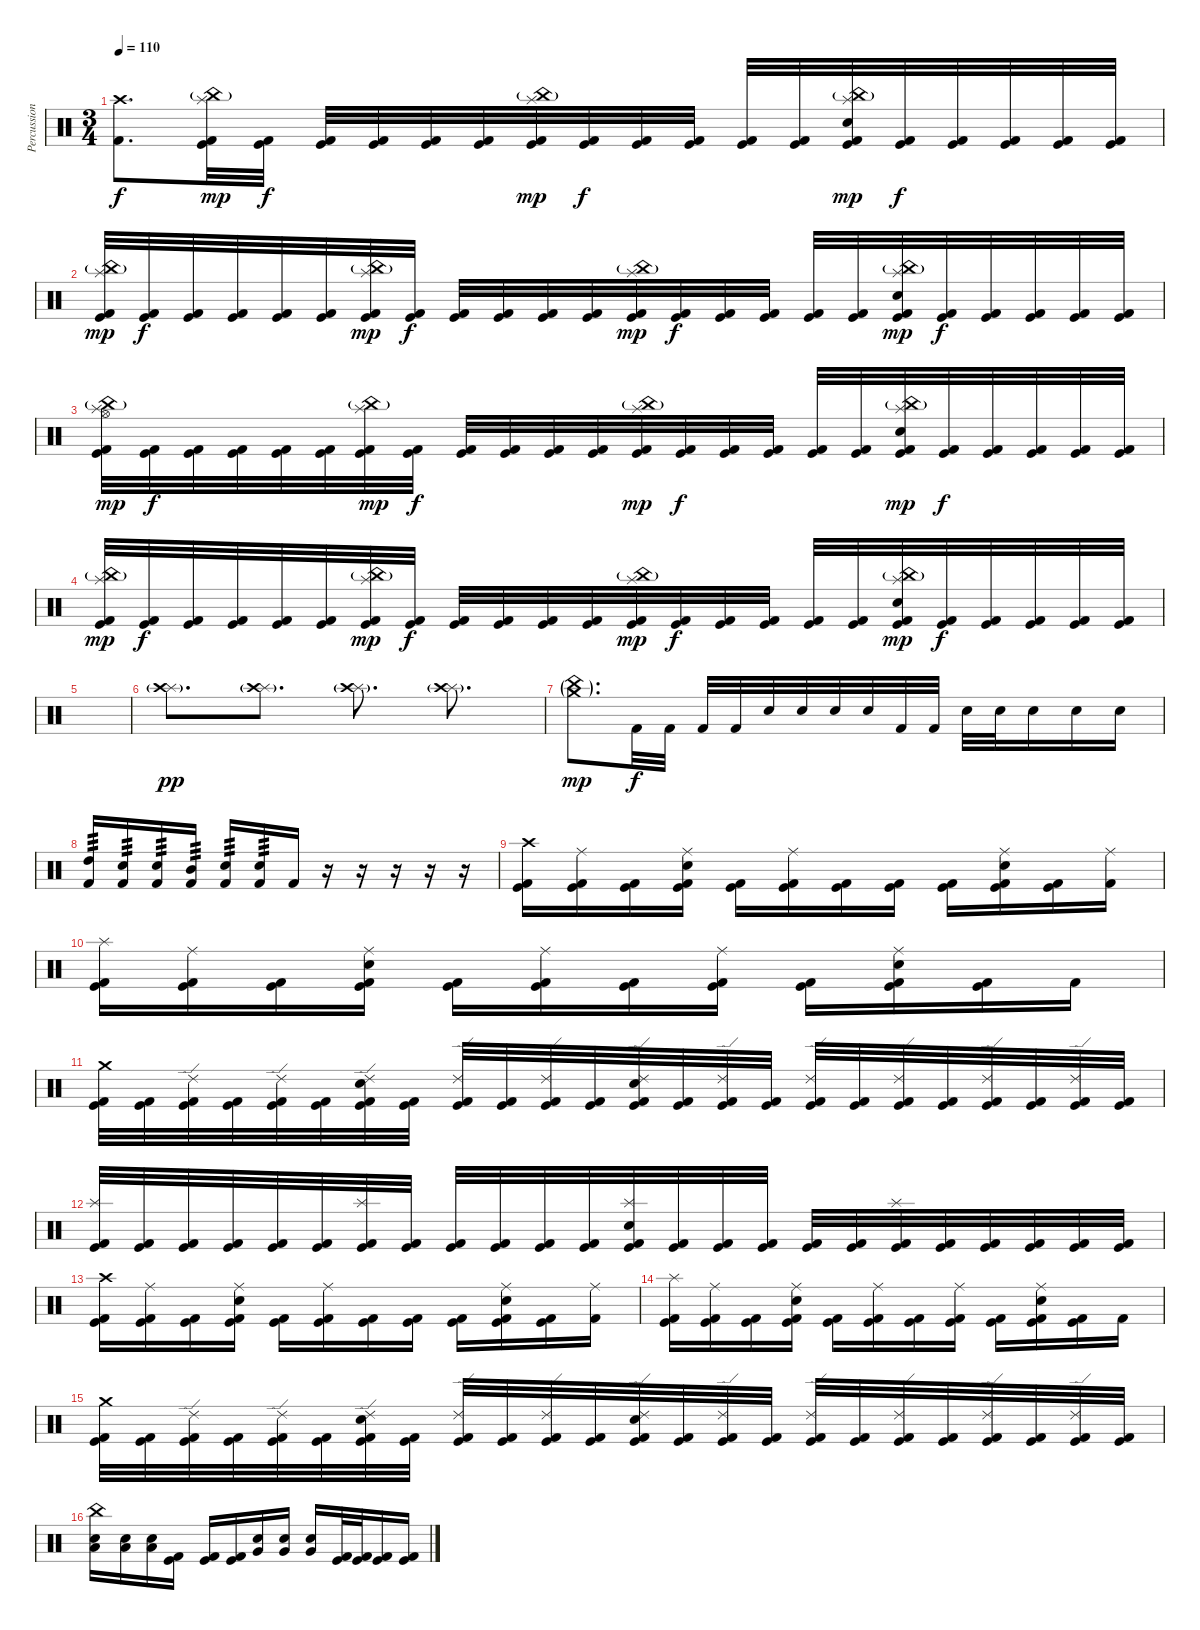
\track ("Percussion" "Percussion") {instrument percussion}
\staff {score}
\articulation defaults
\ts (3 4)
\tempo 110
\clef neutral
\ks c
("Crash high (hit)" "Kick (hit) 2").8{d dy f} ("China (hit)"{g} "Splash (hit)" "Kick (hit)" "Kick (hit) 2").32{dy mp} ("Kick (hit)" "Kick (hit) 2").32{dy f} ("Kick (hit)" "Kick (hit) 2").32 ("Kick (hit)" "Kick (hit) 2").32 ("Kick (hit)" "Kick (hit) 2").32 ("Kick (hit)" "Kick (hit) 2").32 ("China (hit)"{g} "Splash (hit)" "Kick (hit)" "Kick (hit) 2").32{dy mp} ("Kick (hit)" "Kick (hit) 2").32{dy f} ("Kick (hit)" "Kick (hit) 2").32 ("Kick (hit)" "Kick (hit) 2").32 ("Kick (hit)" "Kick (hit) 2").32 ("Kick (hit)" "Kick (hit) 2").32 ("China (hit)"{g} "Splash (hit)" "Electric Snare (hit)" "Kick (hit)" "Kick (hit) 2").32{dy mp} ("Kick (hit)" "Kick (hit) 2").32{dy f} ("Kick (hit)" "Kick (hit) 2").32 ("Kick (hit)" "Kick (hit) 2").32 ("Kick (hit)" "Kick (hit) 2").32 ("Kick (hit)" "Kick (hit) 2").32 |
("China (hit)"{g} "Splash (hit)" "Kick (hit)" "Kick (hit) 2").32{dy mp} ("Kick (hit)" "Kick (hit) 2").32{dy f} ("Kick (hit)" "Kick (hit) 2").32 ("Kick (hit)" "Kick (hit) 2").32 ("Kick (hit)" "Kick (hit) 2").32 ("Kick (hit)" "Kick (hit) 2").32 ("China (hit)"{g} "Splash (hit)" "Kick (hit)" "Kick (hit) 2").32{dy mp} ("Kick (hit)" "Kick (hit) 2").32{dy f} ("Kick (hit)" "Kick (hit) 2").32 ("Kick (hit)" "Kick (hit) 2").32 ("Kick (hit)" "Kick (hit) 2").32 ("Kick (hit)" "Kick (hit) 2").32 ("China (hit)"{g} "Splash (hit)" "Kick (hit)" "Kick (hit) 2").32{dy mp} ("Kick (hit)" "Kick (hit) 2").32{dy f} ("Kick (hit)" "Kick (hit) 2").32 ("Kick (hit)" "Kick (hit) 2").32 ("Kick (hit)" "Kick (hit) 2").32 ("Kick (hit)" "Kick (hit) 2").32 ("China (hit)"{g} "Splash (hit)" "Electric Snare (hit)" "Kick (hit)" "Kick (hit) 2").32{dy mp} ("Kick (hit)" "Kick (hit) 2").32{dy f} ("Kick (hit)" "Kick (hit) 2").32 ("Kick (hit)" "Kick (hit) 2").32 ("Kick (hit)" "Kick (hit) 2").32 ("Kick (hit)" "Kick (hit) 2").32 |
("China (hit)"{g} "Splash (hit)" "Hi-Hat (open)" "Kick (hit)" "Kick (hit) 2").32{dy mp} ("Kick (hit)" "Kick (hit) 2").32{dy f} ("Kick (hit)" "Kick (hit) 2").32 ("Kick (hit)" "Kick (hit) 2").32 ("Kick (hit)" "Kick (hit) 2").32 ("Kick (hit)" "Kick (hit) 2").32 ("China (hit)"{g} "Splash (hit)" "Kick (hit)" "Kick (hit) 2").32{dy mp} ("Kick (hit)" "Kick (hit) 2").32{dy f} ("Kick (hit)" "Kick (hit) 2").32 ("Kick (hit)" "Kick (hit) 2").32 ("Kick (hit)" "Kick (hit) 2").32 ("Kick (hit)" "Kick (hit) 2").32 ("China (hit)"{g} "Splash (hit)" "Kick (hit)" "Kick (hit) 2").32{dy mp} ("Kick (hit)" "Kick (hit) 2").32{dy f} ("Kick (hit)" "Kick (hit) 2").32 ("Kick (hit)" "Kick (hit) 2").32 ("Kick (hit)" "Kick (hit) 2").32 ("Kick (hit)" "Kick (hit) 2").32 ("China (hit)"{g} "Splash (hit)" "Electric Snare (hit)" "Kick (hit)" "Kick (hit) 2").32{dy mp} ("Kick (hit)" "Kick (hit) 2").32{dy f} ("Kick (hit)" "Kick (hit) 2").32 ("Kick (hit)" "Kick (hit) 2").32 ("Kick (hit)" "Kick (hit) 2").32 ("Kick (hit)" "Kick (hit) 2").32 |
("China (hit)"{g} "Splash (hit)" "Kick (hit)" "Kick (hit) 2").32{dy mp} ("Kick (hit)" "Kick (hit) 2").32{dy f} ("Kick (hit)" "Kick (hit) 2").32 ("Kick (hit)" "Kick (hit) 2").32 ("Kick (hit)" "Kick (hit) 2").32 ("Kick (hit)" "Kick (hit) 2").32 ("China (hit)"{g} "Splash (hit)" "Kick (hit)" "Kick (hit) 2").32{dy mp} ("Kick (hit)" "Kick (hit) 2").32{dy f} ("Kick (hit)" "Kick (hit) 2").32 ("Kick (hit)" "Kick (hit) 2").32 ("Kick (hit)" "Kick (hit) 2").32 ("Kick (hit)" "Kick (hit) 2").32 ("China (hit)"{g} "Splash (hit)" "Kick (hit)" "Kick (hit) 2").32{dy mp} ("Kick (hit)" "Kick (hit) 2").32{dy f} ("Kick (hit)" "Kick (hit) 2").32 ("Kick (hit)" "Kick (hit) 2").32 ("Kick (hit)" "Kick (hit) 2").32 ("Kick (hit)" "Kick (hit) 2").32 ("China (hit)"{g} "Splash (hit)" "Electric Snare (hit)" "Kick (hit)" "Kick (hit) 2").32{dy mp} ("Kick (hit)" "Kick (hit) 2").32{dy f} ("Kick (hit)" "Kick (hit) 2").32 ("Kick (hit)" "Kick (hit) 2").32 ("Kick (hit)" "Kick (hit) 2").32 ("Kick (hit)" "Kick (hit) 2").32 |
|
("Splash (hit)"{g} "Crash high (hit)"{g}).8{d dy pp} ("Splash (hit)"{g} "Crash high (hit)"{g}).8{d} ("Splash (hit)"{g} "Crash high (hit)"{g}).8{d} ("Splash (hit)"{g} "Crash high (hit)"{g}).8{d} |
("Crash medium (hit)"{g} "China (hit)"{g}).8{d dy mp} "Kick (hit) 2".32{dy f} "Kick (hit) 2".32 "Kick (hit) 2".32 "Kick (hit) 2".32 "Electric Snare (hit)".32 "Electric Snare (hit)".32 "Electric Snare (hit)".32 "Electric Snare (hit)".32 "Kick (hit) 2".32 "Kick (hit) 2".32 "Electric Snare (hit)".32 "Electric Snare (hit)".32 "Electric Snare (hit)".16 "Electric Snare (hit)".16 "Electric Snare (hit)".16 |
("High Tom (hit)" "Kick (hit) 2").16{tp 3} ("Electric Snare (hit)" "Kick (hit) 2").16{tp 3} ("Electric Snare (hit)" "Kick (hit) 2").16{tp 3} ("Mid Tom (hit)" "Kick (hit) 2").16{tp 3} ("Electric Snare (hit)" "Kick (hit) 2").16{tp 3} ("Electric Snare (hit)" "Kick (hit) 2").16{tp 3} "Kick (hit) 2".16 r.16 r.16 r.16 r.16 r.16 |
("Kick (hit)" "Crash high (hit)" "Kick (hit) 2").16 ("Ride (middle)" "Kick (hit)" "Kick (hit) 2").16 ("Kick (hit)" "Kick (hit) 2").16 ("Ride (middle)" "Kick (hit)" "Electric Snare (hit)" "Kick (hit) 2").16 ("Kick (hit)" "Kick (hit) 2").16 ("Ride (middle)" "Kick (hit)" "Kick (hit) 2").16 ("Kick (hit)" "Kick (hit) 2").16 ("Kick (hit)" "Kick (hit) 2").16 ("Kick (hit)" "Kick (hit) 2").16 ("Ride (middle)" "Kick (hit)" "Electric Snare (hit)" "Kick (hit) 2").16 ("Kick (hit)" "Kick (hit) 2").16 ("Ride (middle)" "Kick (hit) 2").16 |
("Kick (hit)" "Splash (hit)" "Kick (hit) 2").16 ("Ride (middle)" "Kick (hit)" "Kick (hit) 2").16 ("Kick (hit)" "Kick (hit) 2").16 ("Ride (middle)" "Kick (hit)" "Electric Snare (hit)" "Kick (hit) 2").16 ("Kick (hit)" "Kick (hit) 2").16 ("Ride (middle)" "Kick (hit)" "Kick (hit) 2").16 ("Kick (hit)" "Kick (hit) 2").16 ("Ride (middle)" "Kick (hit)" "Kick (hit) 2").16 ("Kick (hit)" "Kick (hit) 2").16 ("Ride (middle)" "Kick (hit)" "Electric Snare (hit)" "Kick (hit) 2").16 ("Kick (hit)" "Kick (hit) 2").16 "Kick (hit) 2".16 |
("Kick (hit)" "Crash medium (hit)" "Kick (hit) 2").32 ("Kick (hit)" "Kick (hit) 2").32 ("Ride (edge) 2" "Kick (hit)" "Kick (hit) 2").32 ("Kick (hit)" "Kick (hit) 2").32 ("Ride (edge) 2" "Kick (hit)" "Kick (hit) 2").32 ("Kick (hit)" "Kick (hit) 2").32 ("Ride (edge) 2" "Kick (hit)" "Electric Snare (hit)" "Kick (hit) 2").32 ("Kick (hit)" "Kick (hit) 2").32 ("Ride (edge) 2" "Kick (hit)" "Kick (hit) 2").32 ("Kick (hit)" "Kick (hit) 2").32 ("Ride (edge) 2" "Kick (hit)" "Kick (hit) 2").32 ("Kick (hit)" "Kick (hit) 2").32 ("Ride (edge) 2" "Kick (hit)" "Electric Snare (hit)" "Kick (hit) 2").32 ("Kick (hit)" "Kick (hit) 2").32 ("Ride (edge) 2" "Kick (hit)" "Kick (hit) 2").32 ("Kick (hit)" "Kick (hit) 2").32 ("Ride (edge) 2" "Kick (hit)" "Kick (hit) 2").32 ("Kick (hit)" "Kick (hit) 2").32 ("Ride (edge) 2" "Kick (hit)" "Kick (hit) 2").32 ("Kick (hit)" "Kick (hit) 2").32 ("Ride (edge) 2" "Kick (hit)" "Kick (hit) 2").32 ("Kick (hit)" "Kick (hit) 2").32 ("Ride (edge) 2" "Kick (hit)" "Kick (hit) 2").32 ("Kick (hit)" "Kick (hit) 2").32 |
("Splash (hit)" "Kick (hit)" "Kick (hit) 2").32 ("Kick (hit)" "Kick (hit) 2").32 ("Kick (hit)" "Kick (hit) 2").32 ("Kick (hit)" "Kick (hit) 2").32 ("Kick (hit)" "Kick (hit) 2").32 ("Kick (hit)" "Kick (hit) 2").32 ("Splash (hit)" "Kick (hit)" "Kick (hit) 2").32 ("Kick (hit)" "Kick (hit) 2").32 ("Kick (hit)" "Kick (hit) 2").32 ("Kick (hit)" "Kick (hit) 2").32 ("Kick (hit)" "Kick (hit) 2").32 ("Kick (hit)" "Kick (hit) 2").32 ("Splash (hit)" "Kick (hit)" "Electric Snare (hit)" "Kick (hit) 2").32 ("Kick (hit)" "Kick (hit) 2").32 ("Kick (hit)" "Kick (hit) 2").32 ("Kick (hit)" "Kick (hit) 2").32 ("Kick (hit)" "Kick (hit) 2").32 ("Kick (hit)" "Kick (hit) 2").32 ("Splash (hit)" "Kick (hit)" "Kick (hit) 2").32 ("Kick (hit)" "Kick (hit) 2").32 ("Kick (hit)" "Kick (hit) 2").32 ("Kick (hit)" "Kick (hit) 2").32 ("Kick (hit)" "Kick (hit) 2").32 ("Kick (hit)" "Kick (hit) 2").32 |
("Kick (hit)" "Crash high (hit)" "Kick (hit) 2").16 ("Ride (middle)" "Kick (hit)" "Kick (hit) 2").16 ("Kick (hit)" "Kick (hit) 2").16 ("Ride (middle)" "Kick (hit)" "Electric Snare (hit)" "Kick (hit) 2").16 ("Kick (hit)" "Kick (hit) 2").16 ("Ride (middle)" "Kick (hit)" "Kick (hit) 2").16 ("Kick (hit)" "Kick (hit) 2").16 ("Kick (hit)" "Kick (hit) 2").16 ("Kick (hit)" "Kick (hit) 2").16 ("Ride (middle)" "Kick (hit)" "Electric Snare (hit)" "Kick (hit) 2").16 ("Kick (hit)" "Kick (hit) 2").16 ("Ride (middle)" "Kick (hit) 2").16 |
("Kick (hit)" "Splash (hit)" "Kick (hit) 2").16 ("Ride (middle)" "Kick (hit)" "Kick (hit) 2").16 ("Kick (hit)" "Kick (hit) 2").16 ("Ride (middle)" "Kick (hit)" "Electric Snare (hit)" "Kick (hit) 2").16 ("Kick (hit)" "Kick (hit) 2").16 ("Ride (middle)" "Kick (hit)" "Kick (hit) 2").16 ("Kick (hit)" "Kick (hit) 2").16 ("Ride (middle)" "Kick (hit)" "Kick (hit) 2").16 ("Kick (hit)" "Kick (hit) 2").16 ("Ride (middle)" "Kick (hit)" "Electric Snare (hit)" "Kick (hit) 2").16 ("Kick (hit)" "Kick (hit) 2").16 "Kick (hit) 2".16 |
("Kick (hit)" "Crash medium (hit)" "Kick (hit) 2").32 ("Kick (hit)" "Kick (hit) 2").32 ("Ride (edge) 2" "Kick (hit)" "Kick (hit) 2").32 ("Kick (hit)" "Kick (hit) 2").32 ("Ride (edge) 2" "Kick (hit)" "Kick (hit) 2").32 ("Kick (hit)" "Kick (hit) 2").32 ("Ride (edge) 2" "Kick (hit)" "Electric Snare (hit)" "Kick (hit) 2").32 ("Kick (hit)" "Kick (hit) 2").32 ("Ride (edge) 2" "Kick (hit)" "Kick (hit) 2").32 ("Kick (hit)" "Kick (hit) 2").32 ("Ride (edge) 2" "Kick (hit)" "Kick (hit) 2").32 ("Kick (hit)" "Kick (hit) 2").32 ("Ride (edge) 2" "Kick (hit)" "Electric Snare (hit)" "Kick (hit) 2").32 ("Kick (hit)" "Kick (hit) 2").32 ("Ride (edge) 2" "Kick (hit)" "Kick (hit) 2").32 ("Kick (hit)" "Kick (hit) 2").32 ("Ride (edge) 2" "Kick (hit)" "Kick (hit) 2").32 ("Kick (hit)" "Kick (hit) 2").32 ("Ride (edge) 2" "Kick (hit)" "Kick (hit) 2").32 ("Kick (hit)" "Kick (hit) 2").32 ("Ride (edge) 2" "Kick (hit)" "Kick (hit) 2").32 ("Kick (hit)" "Kick (hit) 2").32 ("Ride (edge) 2" "Kick (hit)" "Kick (hit) 2").32 ("Kick (hit)" "Kick (hit) 2").32 |
("China (hit)" "Low Tom (hit)" "Electric Snare (hit)").16 ("Low Tom (hit)" "Electric Snare (hit)").16 ("Low Tom (hit)" "Electric Snare (hit)").16 ("Kick (hit)" "Kick (hit) 2").16 ("Kick (hit)" "Kick (hit) 2").16 ("Kick (hit)" "Kick (hit) 2").16 ("Very Low Tom (hit)" "Electric Snare (hit)").16 ("Very Low Tom (hit)" "Electric Snare (hit)").16 ("Very Low Tom (hit)" "Electric Snare (hit)").16 ("Kick (hit)" "Kick (hit) 2").32 ("Kick (hit)" "Kick (hit) 2").32 ("Kick (hit)" "Kick (hit) 2").16 ("Kick (hit)" "Kick (hit) 2").16
